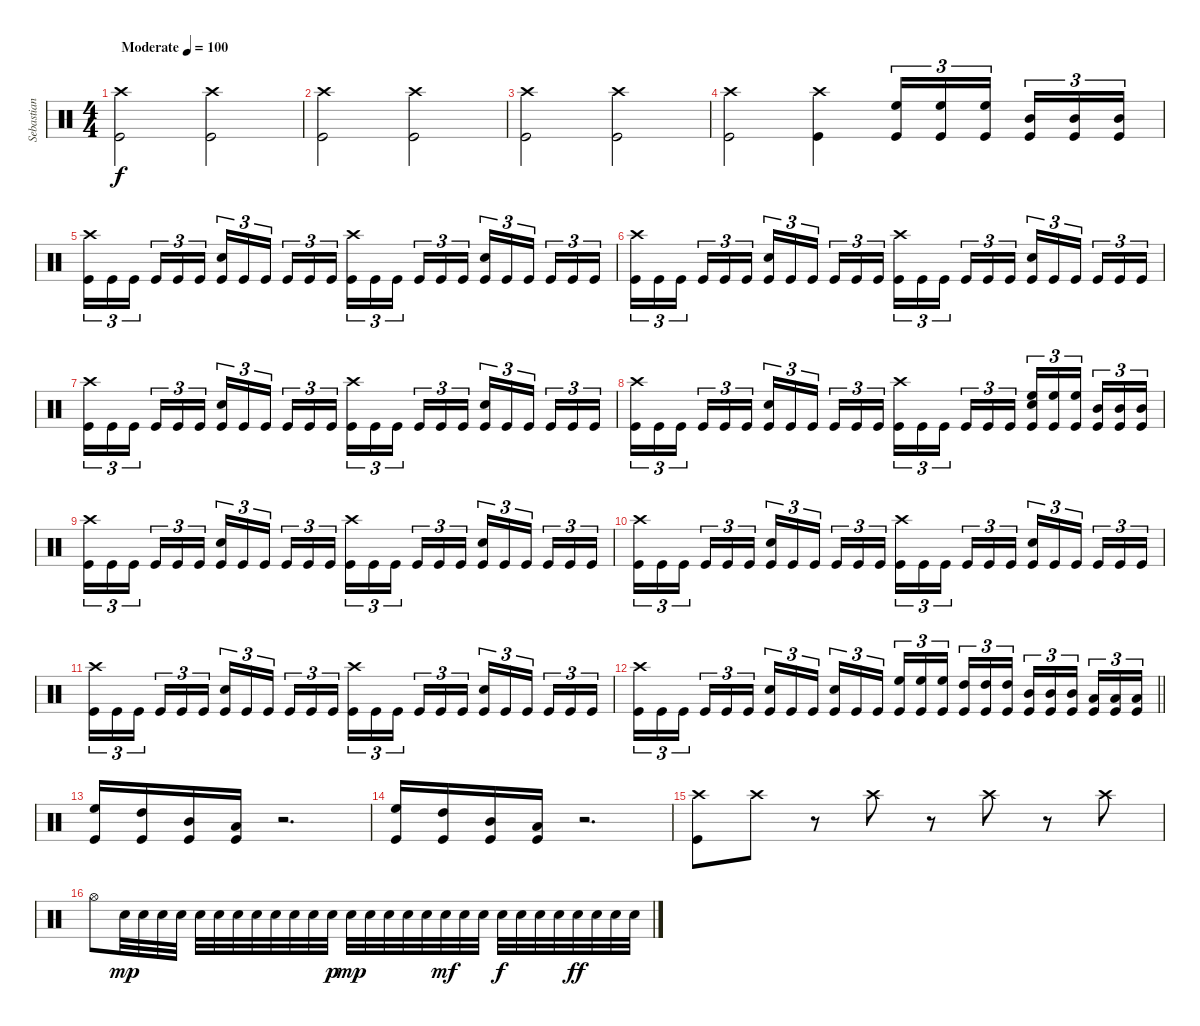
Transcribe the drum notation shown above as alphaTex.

\track ("Sebastian Heldt" "Sebastian ") {instrument percussion}
\staff {score}
\articulation defaults
\ts (4 4)
\tempo (100 "Moderate")
\clef neutral
\ks c
("Kick (hit)" "Crash high (hit)").2{dy f} ("Kick (hit)" "Crash high (hit)").2 |
("Kick (hit)" "Crash high (hit)").2 ("Kick (hit)" "Crash high (hit)").2 |
("Kick (hit)" "Crash high (hit)").2 ("Kick (hit)" "Crash high (hit)").2 |
("Kick (hit)" "Crash high (hit)").2 ("Kick (hit)" "Crash high (hit)").4 ("Kick (hit)" "High Floor Tom (hit)").16{tu (3 2)} ("Kick (hit)" "High Floor Tom (hit)").16{tu (3 2)} ("Kick (hit)" "High Floor Tom (hit)").16{tu (3 2) beam splitsecondary} ("Kick (hit)" "Mid Tom (hit)").16{tu (3 2)} ("Kick (hit)" "Mid Tom (hit)").16{tu (3 2)} ("Kick (hit)" "Mid Tom (hit)").16{tu (3 2)} |
("Kick (hit)" "Crash high (hit)").16{tu (3 2)} "Kick (hit)".16{tu (3 2)} "Kick (hit)".16{tu (3 2) beam splitsecondary} "Kick (hit)".16{tu (3 2)} "Kick (hit)".16{tu (3 2)} "Kick (hit)".16{tu (3 2)} ("Kick (hit)" "Snare (hit) 2").16{tu (3 2)} "Kick (hit)".16{tu (3 2)} "Kick (hit)".16{tu (3 2) beam splitsecondary} "Kick (hit)".16{tu (3 2)} "Kick (hit)".16{tu (3 2)} "Kick (hit)".16{tu (3 2)} ("Kick (hit)" "Crash high (hit)").16{tu (3 2)} "Kick (hit)".16{tu (3 2)} "Kick (hit)".16{tu (3 2) beam splitsecondary} "Kick (hit)".16{tu (3 2)} "Kick (hit)".16{tu (3 2)} "Kick (hit)".16{tu (3 2)} ("Kick (hit)" "Snare (hit) 2").16{tu (3 2)} "Kick (hit)".16{tu (3 2)} "Kick (hit)".16{tu (3 2) beam splitsecondary} "Kick (hit)".16{tu (3 2)} "Kick (hit)".16{tu (3 2)} "Kick (hit)".16{tu (3 2)} |
("Kick (hit)" "Crash high (hit)").16{tu (3 2)} "Kick (hit)".16{tu (3 2)} "Kick (hit)".16{tu (3 2) beam splitsecondary} "Kick (hit)".16{tu (3 2)} "Kick (hit)".16{tu (3 2)} "Kick (hit)".16{tu (3 2)} ("Kick (hit)" "Snare (hit) 2").16{tu (3 2)} "Kick (hit)".16{tu (3 2)} "Kick (hit)".16{tu (3 2) beam splitsecondary} "Kick (hit)".16{tu (3 2)} "Kick (hit)".16{tu (3 2)} "Kick (hit)".16{tu (3 2)} ("Kick (hit)" "Crash high (hit)").16{tu (3 2)} "Kick (hit)".16{tu (3 2)} "Kick (hit)".16{tu (3 2) beam splitsecondary} "Kick (hit)".16{tu (3 2)} "Kick (hit)".16{tu (3 2)} "Kick (hit)".16{tu (3 2)} ("Kick (hit)" "Snare (hit) 2").16{tu (3 2)} "Kick (hit)".16{tu (3 2)} "Kick (hit)".16{tu (3 2) beam splitsecondary} "Kick (hit)".16{tu (3 2)} "Kick (hit)".16{tu (3 2)} "Kick (hit)".16{tu (3 2)} |
("Kick (hit)" "Crash high (hit)").16{tu (3 2)} "Kick (hit)".16{tu (3 2)} "Kick (hit)".16{tu (3 2) beam splitsecondary} "Kick (hit)".16{tu (3 2)} "Kick (hit)".16{tu (3 2)} "Kick (hit)".16{tu (3 2)} ("Kick (hit)" "Snare (hit) 2").16{tu (3 2)} "Kick (hit)".16{tu (3 2)} "Kick (hit)".16{tu (3 2) beam splitsecondary} "Kick (hit)".16{tu (3 2)} "Kick (hit)".16{tu (3 2)} "Kick (hit)".16{tu (3 2)} ("Kick (hit)" "Crash high (hit)").16{tu (3 2)} "Kick (hit)".16{tu (3 2)} "Kick (hit)".16{tu (3 2) beam splitsecondary} "Kick (hit)".16{tu (3 2)} "Kick (hit)".16{tu (3 2)} "Kick (hit)".16{tu (3 2)} ("Kick (hit)" "Snare (hit) 2").16{tu (3 2)} "Kick (hit)".16{tu (3 2)} "Kick (hit)".16{tu (3 2) beam splitsecondary} "Kick (hit)".16{tu (3 2)} "Kick (hit)".16{tu (3 2)} "Kick (hit)".16{tu (3 2)} |
("Kick (hit)" "Crash high (hit)").16{tu (3 2)} "Kick (hit)".16{tu (3 2)} "Kick (hit)".16{tu (3 2) beam splitsecondary} "Kick (hit)".16{tu (3 2)} "Kick (hit)".16{tu (3 2)} "Kick (hit)".16{tu (3 2)} ("Kick (hit)" "Snare (hit) 2").16{tu (3 2)} "Kick (hit)".16{tu (3 2)} "Kick (hit)".16{tu (3 2) beam splitsecondary} "Kick (hit)".16{tu (3 2)} "Kick (hit)".16{tu (3 2)} "Kick (hit)".16{tu (3 2)} ("Kick (hit)" "Crash high (hit)").16{tu (3 2)} "Kick (hit)".16{tu (3 2)} "Kick (hit)".16{tu (3 2) beam splitsecondary} "Kick (hit)".16{tu (3 2)} "Kick (hit)".16{tu (3 2)} "Kick (hit)".16{tu (3 2)} ("Kick (hit)" "Snare (hit) 2" "High Floor Tom (hit)").16{tu (3 2)} ("Kick (hit)" "High Floor Tom (hit)").16{tu (3 2)} ("Kick (hit)" "High Floor Tom (hit)").16{tu (3 2) beam splitsecondary} ("Kick (hit)" "Mid Tom (hit)").16{tu (3 2)} ("Kick (hit)" "Mid Tom (hit)").16{tu (3 2)} ("Kick (hit)" "Mid Tom (hit)").16{tu (3 2)} |
("Kick (hit)" "Crash high (hit)").16{tu (3 2)} "Kick (hit)".16{tu (3 2)} "Kick (hit)".16{tu (3 2) beam splitsecondary} "Kick (hit)".16{tu (3 2)} "Kick (hit)".16{tu (3 2)} "Kick (hit)".16{tu (3 2)} ("Kick (hit)" "Snare (hit) 2").16{tu (3 2)} "Kick (hit)".16{tu (3 2)} "Kick (hit)".16{tu (3 2) beam splitsecondary} "Kick (hit)".16{tu (3 2)} "Kick (hit)".16{tu (3 2)} "Kick (hit)".16{tu (3 2)} ("Kick (hit)" "Crash high (hit)").16{tu (3 2)} "Kick (hit)".16{tu (3 2)} "Kick (hit)".16{tu (3 2) beam splitsecondary} "Kick (hit)".16{tu (3 2)} "Kick (hit)".16{tu (3 2)} "Kick (hit)".16{tu (3 2)} ("Kick (hit)" "Snare (hit) 2").16{tu (3 2)} "Kick (hit)".16{tu (3 2)} "Kick (hit)".16{tu (3 2) beam splitsecondary} "Kick (hit)".16{tu (3 2)} "Kick (hit)".16{tu (3 2)} "Kick (hit)".16{tu (3 2)} |
("Kick (hit)" "Crash high (hit)").16{tu (3 2)} "Kick (hit)".16{tu (3 2)} "Kick (hit)".16{tu (3 2) beam splitsecondary} "Kick (hit)".16{tu (3 2)} "Kick (hit)".16{tu (3 2)} "Kick (hit)".16{tu (3 2)} ("Kick (hit)" "Snare (hit) 2").16{tu (3 2)} "Kick (hit)".16{tu (3 2)} "Kick (hit)".16{tu (3 2) beam splitsecondary} "Kick (hit)".16{tu (3 2)} "Kick (hit)".16{tu (3 2)} "Kick (hit)".16{tu (3 2)} ("Kick (hit)" "Crash high (hit)").16{tu (3 2)} "Kick (hit)".16{tu (3 2)} "Kick (hit)".16{tu (3 2) beam splitsecondary} "Kick (hit)".16{tu (3 2)} "Kick (hit)".16{tu (3 2)} "Kick (hit)".16{tu (3 2)} ("Kick (hit)" "Snare (hit) 2").16{tu (3 2)} "Kick (hit)".16{tu (3 2)} "Kick (hit)".16{tu (3 2) beam splitsecondary} "Kick (hit)".16{tu (3 2)} "Kick (hit)".16{tu (3 2)} "Kick (hit)".16{tu (3 2)} |
("Kick (hit)" "Crash high (hit)").16{tu (3 2)} "Kick (hit)".16{tu (3 2)} "Kick (hit)".16{tu (3 2) beam splitsecondary} "Kick (hit)".16{tu (3 2)} "Kick (hit)".16{tu (3 2)} "Kick (hit)".16{tu (3 2)} ("Kick (hit)" "Snare (hit) 2").16{tu (3 2)} "Kick (hit)".16{tu (3 2)} "Kick (hit)".16{tu (3 2) beam splitsecondary} "Kick (hit)".16{tu (3 2)} "Kick (hit)".16{tu (3 2)} "Kick (hit)".16{tu (3 2)} ("Kick (hit)" "Crash high (hit)").16{tu (3 2)} "Kick (hit)".16{tu (3 2)} "Kick (hit)".16{tu (3 2) beam splitsecondary} "Kick (hit)".16{tu (3 2)} "Kick (hit)".16{tu (3 2)} "Kick (hit)".16{tu (3 2)} ("Kick (hit)" "Snare (hit) 2").16{tu (3 2)} "Kick (hit)".16{tu (3 2)} "Kick (hit)".16{tu (3 2) beam splitsecondary} "Kick (hit)".16{tu (3 2)} "Kick (hit)".16{tu (3 2)} "Kick (hit)".16{tu (3 2)} |
\barLineRight lightlight
("Kick (hit)" "Crash high (hit)").16{tu (3 2)} "Kick (hit)".16{tu (3 2)} "Kick (hit)".16{tu (3 2) beam splitsecondary} "Kick (hit)".16{tu (3 2)} "Kick (hit)".16{tu (3 2)} "Kick (hit)".16{tu (3 2)} ("Kick (hit)" "Snare (hit) 2").16{tu (3 2)} "Kick (hit)".16{tu (3 2)} "Kick (hit)".16{tu (3 2) beam splitsecondary} ("Kick (hit)" "Snare (hit) 2").16{tu (3 2)} "Kick (hit)".16{tu (3 2)} "Kick (hit)".16{tu (3 2)} ("Kick (hit)" "High Floor Tom (hit)").16{tu (3 2)} ("Kick (hit)" "High Floor Tom (hit)").16{tu (3 2)} ("Kick (hit)" "High Floor Tom (hit)").16{tu (3 2) beam splitsecondary} ("Kick (hit)" "High Tom (hit)").16{tu (3 2)} ("Kick (hit)" "High Tom (hit)").16{tu (3 2)} ("Kick (hit)" "High Tom (hit)").16{tu (3 2)} ("Kick (hit)" "Mid Tom (hit)").16{tu (3 2)} ("Kick (hit)" "Mid Tom (hit)").16{tu (3 2)} ("Kick (hit)" "Mid Tom (hit)").16{tu (3 2) beam splitsecondary} ("Kick (hit)" "Low Tom (hit)").16{tu (3 2)} ("Kick (hit)" "Low Tom (hit)").16{tu (3 2)} ("Kick (hit)" "Low Tom (hit)").16{tu (3 2)} |
("High Floor Tom (hit)" "Kick (hit)").16 ("High Tom (hit)" "Kick (hit)").16 ("Mid Tom (hit)" "Kick (hit)").16 ("Low Tom (hit)" "Kick (hit)").16 r.2{d} |
("High Floor Tom (hit)" "Kick (hit)").16 ("High Tom (hit)" "Kick (hit)").16 ("Mid Tom (hit)" "Kick (hit)").16 ("Low Tom (hit)" "Kick (hit)").16 r.2{d} |
("Crash high (hit)" "Kick (hit)").8 "Crash high (hit)".8 r.8 "Crash high (hit)".8 r.8 "Crash high (hit)".8 r.8 "Crash high (hit)".8 |
"Hi-Hat (open)".8 "Snare (hit) 2".32{dy mp} "Snare (hit) 2".32 "Snare (hit) 2".32 "Snare (hit) 2".32 "Snare (hit) 2".32 "Snare (hit) 2".32 "Snare (hit) 2".32 "Snare (hit) 2".32 "Snare (hit) 2".32 "Snare (hit) 2".32 "Snare (hit) 2".32 "Snare (hit) 2".32{dy p} "Snare (hit) 2".32{dy mp} "Snare (hit) 2".32 "Snare (hit) 2".32 "Snare (hit) 2".32 "Snare (hit) 2".32 "Snare (hit) 2".32{dy mf} "Snare (hit) 2".32 "Snare (hit) 2".32 "Snare (hit) 2".32{dy f} "Snare (hit) 2".32 "Snare (hit) 2".32 "Snare (hit) 2".32 "Snare (hit) 2".32{dy ff} "Snare (hit) 2".32 "Snare (hit) 2".32 "Snare (hit) 2".32
